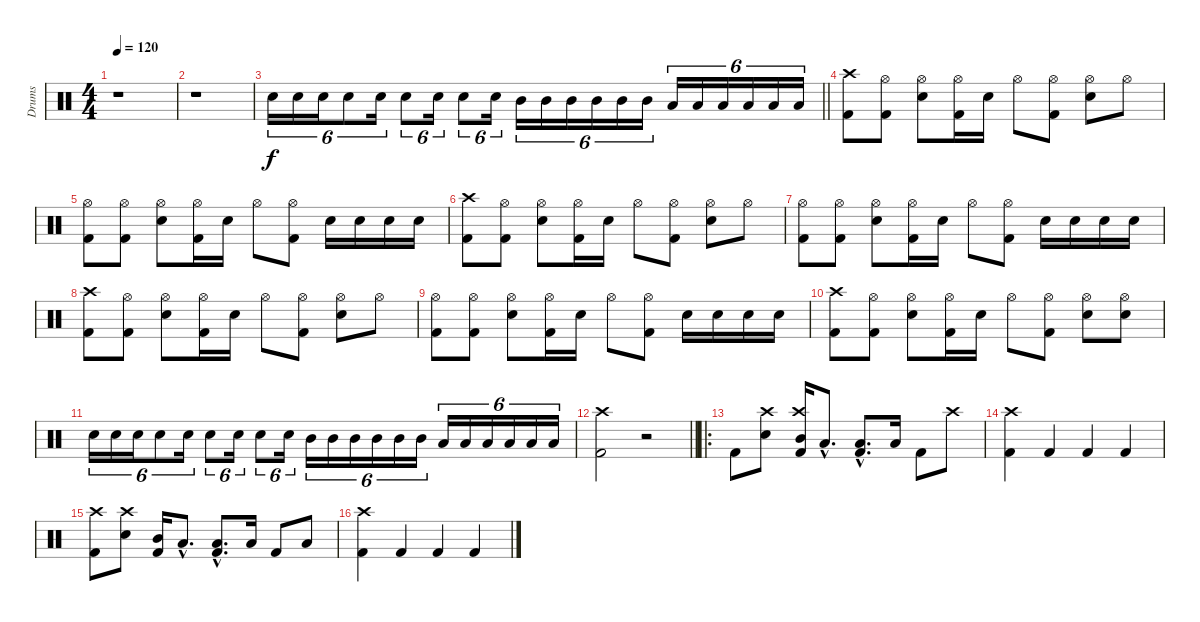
\track ("Drums" "Drums") {instrument percussion}
\staff {score}
\articulation defaults
\ts (4 4)
\tempo 120
\clef neutral
\ks c
r.1{dy f} |
r.1 |
\barLineRight lightlight "Snare (hit) 2".16{tu (6 4)} "Snare (hit) 2".16{tu (6 4)} "Snare (hit) 2".16{tu (6 4)} "Snare (hit) 2".8{tu (6 4)} "Snare (hit) 2".16{tu (6 4)} "Snare (hit) 2".8{tu (6 4)} "Snare (hit) 2".16{tu (6 4)} "Snare (hit) 2".8{tu (6 4)} "Snare (hit) 2".16{tu (6 4)} "Mid Tom (hit)".16{tu (6 4)} "Mid Tom (hit)".16{tu (6 4)} "Mid Tom (hit)".16{tu (6 4)} "Mid Tom (hit)".16{tu (6 4)} "Mid Tom (hit)".16{tu (6 4)} "Mid Tom (hit)".16{tu (6 4)} "Low Floor Tom (hit)".16{tu (6 4)} "Low Floor Tom (hit)".16{tu (6 4)} "Low Floor Tom (hit)".16{tu (6 4)} "Low Floor Tom (hit)".16{tu (6 4)} "Low Floor Tom (hit)".16{tu (6 4)} "Low Floor Tom (hit)".16{tu (6 4)}
|
("Crash high (hit)" "Kick (hit) 2").8 ("Hi-Hat (open)" "Kick (hit) 2").8 ("Hi-Hat (open)" "Snare (hit) 2").8 ("Hi-Hat (open)" "Kick (hit) 2").16 "Snare (hit) 2".16 "Hi-Hat (open)".8 ("Hi-Hat (open)" "Kick (hit) 2").8 ("Hi-Hat (open)" "Snare (hit) 2").8 "Hi-Hat (open)".8 |
("Hi-Hat (open)" "Kick (hit) 2").8 ("Hi-Hat (open)" "Kick (hit) 2").8 ("Hi-Hat (open)" "Snare (hit) 2").8 ("Hi-Hat (open)" "Kick (hit) 2").16 "Snare (hit) 2".16 "Hi-Hat (open)".8 ("Hi-Hat (open)" "Kick (hit) 2").8 "Snare (hit) 2".16 "Snare (hit) 2".16 "Snare (hit) 2".16 "Snare (hit) 2".16 |
("Crash high (hit)" "Kick (hit) 2").8 ("Hi-Hat (open)" "Kick (hit) 2").8 ("Hi-Hat (open)" "Snare (hit) 2").8 ("Hi-Hat (open)" "Kick (hit) 2").16 "Snare (hit) 2".16 "Hi-Hat (open)".8 ("Hi-Hat (open)" "Kick (hit) 2").8 ("Hi-Hat (open)" "Snare (hit) 2").8 "Hi-Hat (open)".8 |
("Hi-Hat (open)" "Kick (hit) 2").8 ("Hi-Hat (open)" "Kick (hit) 2").8 ("Hi-Hat (open)" "Snare (hit) 2").8 ("Hi-Hat (open)" "Kick (hit) 2").16 "Snare (hit) 2".16 "Hi-Hat (open)".8 ("Hi-Hat (open)" "Kick (hit) 2").8 "Snare (hit) 2".16 "Snare (hit) 2".16 "Snare (hit) 2".16 "Snare (hit) 2".16 |
("Crash high (hit)" "Kick (hit) 2").8 ("Hi-Hat (open)" "Kick (hit) 2").8 ("Hi-Hat (open)" "Snare (hit) 2").8 ("Hi-Hat (open)" "Kick (hit) 2").16 "Snare (hit) 2".16 "Hi-Hat (open)".8 ("Hi-Hat (open)" "Kick (hit) 2").8 ("Hi-Hat (open)" "Snare (hit) 2").8 "Hi-Hat (open)".8 |
("Hi-Hat (open)" "Kick (hit) 2").8 ("Hi-Hat (open)" "Kick (hit) 2").8 ("Hi-Hat (open)" "Snare (hit) 2").8 ("Hi-Hat (open)" "Kick (hit) 2").16 "Snare (hit) 2".16 "Hi-Hat (open)".8 ("Hi-Hat (open)" "Kick (hit) 2").8 "Snare (hit) 2".16 "Snare (hit) 2".16 "Snare (hit) 2".16 "Snare (hit) 2".16 |
("Crash high (hit)" "Kick (hit) 2").8 ("Hi-Hat (open)" "Kick (hit) 2").8 ("Hi-Hat (open)" "Snare (hit) 2").8 ("Hi-Hat (open)" "Kick (hit) 2").16 "Snare (hit) 2".16 "Hi-Hat (open)".8 ("Hi-Hat (open)" "Kick (hit) 2").8 ("Hi-Hat (open)" "Snare (hit) 2").8 ("Hi-Hat (open)" "Snare (hit) 2").8 |
"Snare (hit) 2".16{tu (6 4)} "Snare (hit) 2".16{tu (6 4)} "Snare (hit) 2".16{tu (6 4)} "Snare (hit) 2".8{tu (6 4)} "Snare (hit) 2".16{tu (6 4)} "Snare (hit) 2".8{tu (6 4)} "Snare (hit) 2".16{tu (6 4)} "Snare (hit) 2".8{tu (6 4)} "Snare (hit) 2".16{tu (6 4)} "Mid Tom (hit)".16{tu (6 4)} "Mid Tom (hit)".16{tu (6 4)} "Mid Tom (hit)".16{tu (6 4)} "Mid Tom (hit)".16{tu (6 4)} "Mid Tom (hit)".16{tu (6 4)} "Mid Tom (hit)".16{tu (6 4)} "Low Floor Tom (hit)".16{tu (6 4)} "Low Floor Tom (hit)".16{tu (6 4)} "Low Floor Tom (hit)".16{tu (6 4)} "Low Floor Tom (hit)".16{tu (6 4)} "Low Floor Tom (hit)".16{tu (6 4)} "Low Floor Tom (hit)".16{tu (6 4)} |
\barLineRight lightlight
("Crash high (hit)" "Kick (hit) 2").2 r.2 |
\ro "Kick (hit) 2".8
("Crash high (hit)" "Snare (hit) 2").8 ("Crash high (hit)" "Mid Tom (hit)" "Kick (hit) 2").16 "Low Floor Tom (hit)"{hac}.8{d} ("Low Floor Tom (hit)"{hac} "Kick (hit) 2"{hac}).8{d} "Low Floor Tom (hit)".16 "Kick (hit) 2".8 "Crash high (hit)".8 |
("Crash high (hit)" "Kick (hit) 2").4 "Kick (hit) 2".4 "Kick (hit) 2".4 "Kick (hit) 2".4 |
("Crash high (hit)" "Kick (hit) 2").8 ("Crash high (hit)" "Snare (hit) 2").8 ("Mid Tom (hit)" "Kick (hit) 2").16 "Low Floor Tom (hit)"{hac}.8{d} ("Low Floor Tom (hit)"{hac} "Kick (hit) 2"{hac}).8{d} "Low Floor Tom (hit)".16 "Kick (hit) 2".8 "Low Floor Tom (hit)".8 |
("Crash high (hit)" "Kick (hit) 2").4 "Kick (hit) 2".4 "Kick (hit) 2".4 "Kick (hit) 2".4
